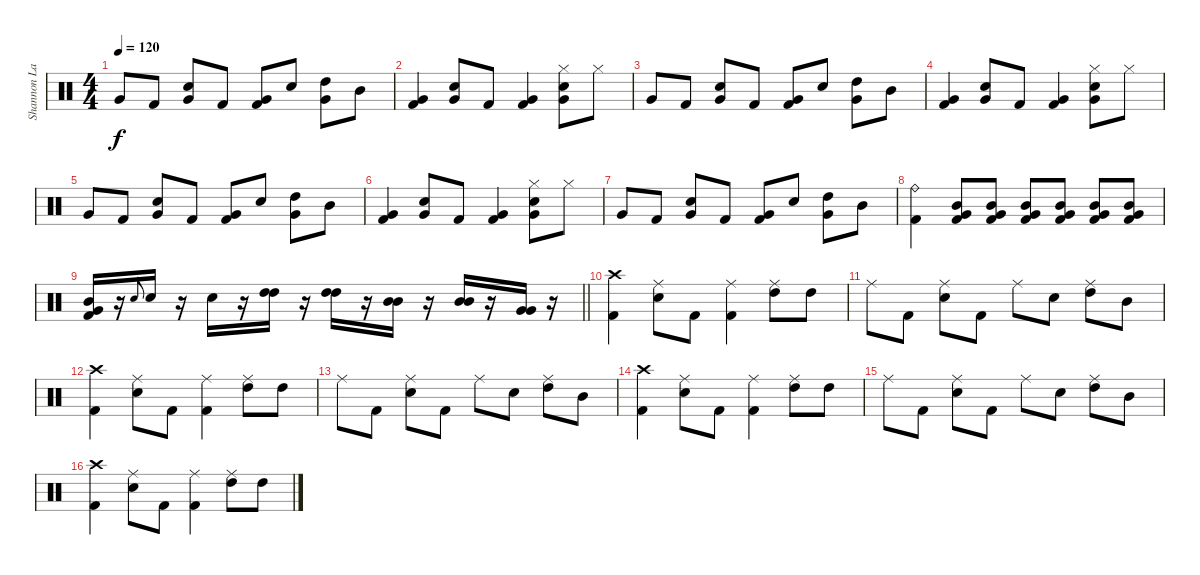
\track ("Shannon Larkin [Drums]" "Shannon La") {instrument percussion}
\staff {score}
\articulation defaults
\ts (4 4)
\tempo 120
\clef neutral
\ks c "Very Low Tom (hit)".8{dy f} "Kick (hit) 2".8
("Very Low Tom (hit)" "Electric Snare (hit)").8 "Kick (hit) 2".8 ("Very Low Tom (hit)" "Kick (hit) 2").8 "Electric Snare (hit)".8 ("Very Low Tom (hit)" "High Tom (hit)").8 "Mid Tom (hit)".8 |
("Very Low Tom (hit)" "Kick (hit) 2").4 ("Very Low Tom (hit)" "Electric Snare (hit)").8 "Kick (hit) 2".8 ("Very Low Tom (hit)" "Kick (hit) 2").4 ("Hi-Hat (closed)" "Very Low Tom (hit)" "Electric Snare (hit)").8 "Hi-Hat (closed)".8 |
"Very Low Tom (hit)".8 "Kick (hit) 2".8 ("Very Low Tom (hit)" "Electric Snare (hit)").8 "Kick (hit) 2".8 ("Very Low Tom (hit)" "Kick (hit) 2").8 "Electric Snare (hit)".8 ("Very Low Tom (hit)" "High Tom (hit)").8 "Mid Tom (hit)".8 |
("Very Low Tom (hit)" "Kick (hit) 2").4 ("Very Low Tom (hit)" "Electric Snare (hit)").8 "Kick (hit) 2".8 ("Very Low Tom (hit)" "Kick (hit) 2").4 ("Hi-Hat (closed)" "Very Low Tom (hit)" "Electric Snare (hit)").8 "Hi-Hat (closed)".8 |
"Very Low Tom (hit)".8 "Kick (hit) 2".8 ("Very Low Tom (hit)" "Electric Snare (hit)").8 "Kick (hit) 2".8 ("Very Low Tom (hit)" "Kick (hit) 2").8 "Electric Snare (hit)".8 ("Very Low Tom (hit)" "High Tom (hit)").8 "Mid Tom (hit)".8 |
("Very Low Tom (hit)" "Kick (hit) 2").4 ("Very Low Tom (hit)" "Electric Snare (hit)").8 "Kick (hit) 2".8 ("Very Low Tom (hit)" "Kick (hit) 2").4 ("Hi-Hat (closed)" "Very Low Tom (hit)" "Electric Snare (hit)").8 "Hi-Hat (closed)".8 |
"Very Low Tom (hit)".8 "Kick (hit) 2".8 ("Very Low Tom (hit)" "Electric Snare (hit)").8 "Kick (hit) 2".8 ("Very Low Tom (hit)" "Kick (hit) 2").8 "Electric Snare (hit)".8 ("Very Low Tom (hit)" "High Tom (hit)").8 "Mid Tom (hit)".8 |
("Ride (bell)" "Kick (hit) 2").4 ("Mid Tom (hit)" "Very Low Tom (hit)" "Kick (hit) 2").8 ("Mid Tom (hit)" "Very Low Tom (hit)" "Kick (hit) 2").8 ("Mid Tom (hit)" "Very Low Tom (hit)" "Kick (hit) 2").8 ("Mid Tom (hit)" "Very Low Tom (hit)" "Kick (hit) 2").8 ("Mid Tom (hit)" "Very Low Tom (hit)" "Kick (hit) 2").8 ("Mid Tom (hit)" "Very Low Tom (hit)" "Kick (hit) 2").8 |
\barLineRight lightlight
("Mid Tom (hit)" "Very Low Tom (hit)" "Kick (hit) 2").16 r.16 "Electric Snare (hit)"{h}.8{gr onbeat} "Electric Snare (hit)".16 r.16 "Electric Snare (hit)".16 r.16 ("High Tom (hit)" "High Tom (hit)").16 r.16 ("High Tom (hit)" "High Tom (hit)").16 r.16 ("Mid Tom (hit)" "Mid Tom (hit)").16 r.16 ("Mid Tom (hit)" "Mid Tom (hit)").16 r.16 ("Very Low Tom (hit)" "Very Low Tom (hit)").16 r.16 |
("Crash high (hit)" "Kick (hit) 2").4 ("Ride (middle)" "Electric Snare (hit)").8 "Kick (hit) 2".8 ("Ride (middle)" "Kick (hit) 2").4 ("Ride (middle)" "High Tom (hit)").8 "High Tom (hit)".8 |
"Ride (middle)".8 "Kick (hit) 2".8 ("Ride (middle)" "Electric Snare (hit)").8 "Kick (hit) 2".8 "Ride (middle)".8 "Electric Snare (hit)".8 ("Ride (middle)" "High Tom (hit)").8 "Mid Tom (hit)".8 |
("Crash high (hit)" "Kick (hit) 2").4 ("Ride (middle)" "Electric Snare (hit)").8 "Kick (hit) 2".8 ("Ride (middle)" "Kick (hit) 2").4 ("Ride (middle)" "High Tom (hit)").8 "High Tom (hit)".8 |
"Ride (middle)".8 "Kick (hit) 2".8 ("Ride (middle)" "Electric Snare (hit)").8 "Kick (hit) 2".8 "Ride (middle)".8 "Electric Snare (hit)".8 ("Ride (middle)" "High Tom (hit)").8 "Mid Tom (hit)".8 |
("Crash high (hit)" "Kick (hit) 2").4 ("Ride (middle)" "Electric Snare (hit)").8 "Kick (hit) 2".8 ("Ride (middle)" "Kick (hit) 2").4 ("Ride (middle)" "High Tom (hit)").8 "High Tom (hit)".8 |
"Ride (middle)".8 "Kick (hit) 2".8 ("Ride (middle)" "Electric Snare (hit)").8 "Kick (hit) 2".8 "Ride (middle)".8 "Electric Snare (hit)".8 ("Ride (middle)" "High Tom (hit)").8 "Mid Tom (hit)".8 |
("Crash high (hit)" "Kick (hit) 2").4 ("Ride (middle)" "Electric Snare (hit)").8 "Kick (hit) 2".8 ("Ride (middle)" "Kick (hit) 2").4 ("Ride (middle)" "High Tom (hit)").8 "High Tom (hit)".8
